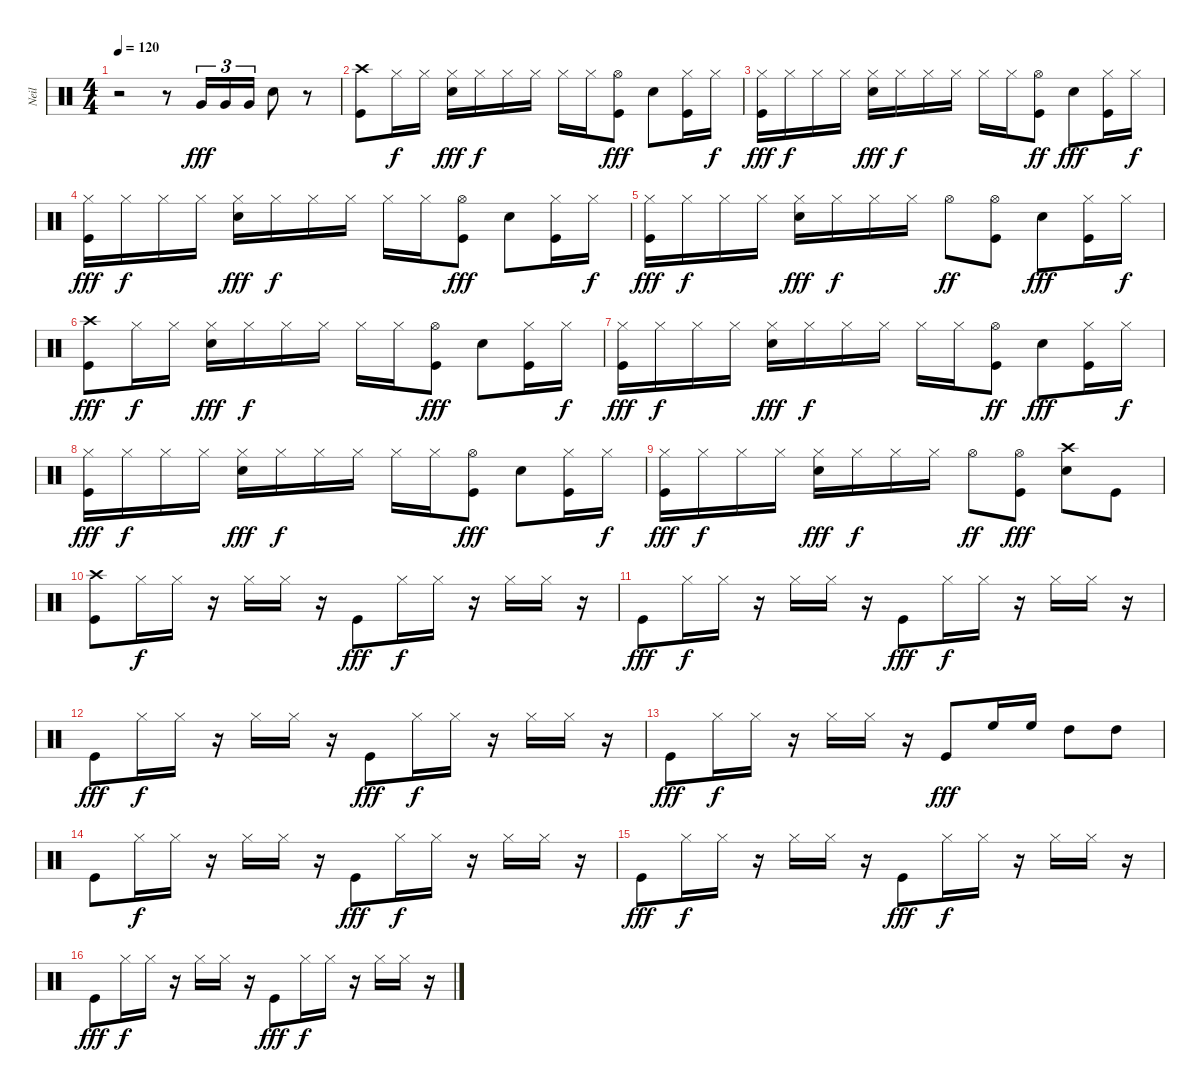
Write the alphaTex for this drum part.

\track ("Neil" "Neil") {instrument percussion}
\staff {score}
\articulation defaults
\ts (4 4)
\tempo 120
\clef neutral
\ks c
r.2{dy fff} r.8 "Very Low Tom (hit)".16{tu (3 2)} "Very Low Tom (hit)".16{tu (3 2)} "Very Low Tom (hit)".16{tu (3 2)} "Snare (hit) 2".8 r.8 |
("Crash high (hit)" "Kick (hit)").8 "Hi-Hat (closed)".16{dy f} "Hi-Hat (closed)".16 ("Snare (hit) 2" "Hi-Hat (closed)").16{dy fff} "Hi-Hat (closed)".16{dy f} "Hi-Hat (closed)".16 "Hi-Hat (closed)".16 "Hi-Hat (closed)".16 "Hi-Hat (closed)".16 ("Hi-Hat (open)" "Kick (hit)").8{dy fff} "Snare (hit) 2".8 ("Hi-Hat (closed)" "Kick (hit)").16 "Hi-Hat (closed)".16{dy f} |
("Hi-Hat (closed)" "Kick (hit)").16{dy fff} "Hi-Hat (closed)".16{dy f} "Hi-Hat (closed)".16 "Hi-Hat (closed)".16 ("Snare (hit) 2" "Hi-Hat (closed)").16{dy fff} "Hi-Hat (closed)".16{dy f} "Hi-Hat (closed)".16 "Hi-Hat (closed)".16 "Hi-Hat (closed)".16 "Hi-Hat (closed)".16 ("Kick (hit)" "Hi-Hat (open)").8{dy ff} "Snare (hit) 2".8{dy fff} ("Kick (hit)" "Hi-Hat (closed)").16 "Hi-Hat (closed)".16{dy f} |
("Kick (hit)" "Hi-Hat (closed)").16{dy fff} "Hi-Hat (closed)".16{dy f} "Hi-Hat (closed)".16 "Hi-Hat (closed)".16 ("Hi-Hat (closed)" "Snare (hit) 2").16{dy fff} "Hi-Hat (closed)".16{dy f} "Hi-Hat (closed)".16 "Hi-Hat (closed)".16 "Hi-Hat (closed)".16 "Hi-Hat (closed)".16 ("Hi-Hat (open)" "Kick (hit)").8{dy fff} "Snare (hit) 2".8 ("Hi-Hat (closed)" "Kick (hit)").16 "Hi-Hat (closed)".16{dy f} |
("Kick (hit)" "Hi-Hat (closed)").16{dy fff} "Hi-Hat (closed)".16{dy f} "Hi-Hat (closed)".16 "Hi-Hat (closed)".16 ("Snare (hit) 2" "Hi-Hat (closed)").16{dy fff} "Hi-Hat (closed)".16{dy f} "Hi-Hat (closed)".16 "Hi-Hat (closed)".16 "Hi-Hat (open)".8{dy ff} ("Kick (hit)" "Hi-Hat (open)").8 "Snare (hit) 2".8{dy fff} ("Hi-Hat (closed)" "Kick (hit)").16 "Hi-Hat (closed)".16{dy f} |
("Crash high (hit)" "Kick (hit)").8{dy fff} "Hi-Hat (closed)".16{dy f} "Hi-Hat (closed)".16 ("Snare (hit) 2" "Hi-Hat (closed)").16{dy fff} "Hi-Hat (closed)".16{dy f} "Hi-Hat (closed)".16 "Hi-Hat (closed)".16 "Hi-Hat (closed)".16 "Hi-Hat (closed)".16 ("Hi-Hat (open)" "Kick (hit)").8{dy fff} "Snare (hit) 2".8 ("Hi-Hat (closed)" "Kick (hit)").16 "Hi-Hat (closed)".16{dy f} |
("Kick (hit)" "Hi-Hat (closed)").16{dy fff} "Hi-Hat (closed)".16{dy f} "Hi-Hat (closed)".16 "Hi-Hat (closed)".16 ("Snare (hit) 2" "Hi-Hat (closed)").16{dy fff} "Hi-Hat (closed)".16{dy f} "Hi-Hat (closed)".16 "Hi-Hat (closed)".16 "Hi-Hat (closed)".16 "Hi-Hat (closed)".16 ("Kick (hit)" "Hi-Hat (open)").8{dy ff} "Snare (hit) 2".8{dy fff} ("Hi-Hat (closed)" "Kick (hit)").16 "Hi-Hat (closed)".16{dy f} |
("Kick (hit)" "Hi-Hat (closed)").16{dy fff} "Hi-Hat (closed)".16{dy f} "Hi-Hat (closed)".16 "Hi-Hat (closed)".16 ("Snare (hit) 2" "Hi-Hat (closed)").16{dy fff} "Hi-Hat (closed)".16{dy f} "Hi-Hat (closed)".16 "Hi-Hat (closed)".16 "Hi-Hat (closed)".16 "Hi-Hat (closed)".16 ("Hi-Hat (open)" "Kick (hit)").8{dy fff} "Snare (hit) 2".8 ("Hi-Hat (closed)" "Kick (hit)").16 "Hi-Hat (closed)".16{dy f} |
("Kick (hit)" "Hi-Hat (closed)").16{dy fff} "Hi-Hat (closed)".16{dy f} "Hi-Hat (closed)".16 "Hi-Hat (closed)".16 ("Snare (hit) 2" "Hi-Hat (closed)").16{dy fff} "Hi-Hat (closed)".16{dy f} "Hi-Hat (closed)".16 "Hi-Hat (closed)".16 "Hi-Hat (open)".8{dy ff} ("Hi-Hat (open)" "Kick (hit)").8{dy fff} ("Snare (hit) 2" "Crash high (hit)").8 "Kick (hit)".8 |
("Kick (hit)" "Crash high (hit)").8 "Hi-Hat (closed)".16{dy f} "Hi-Hat (closed)".16 r.16 "Hi-Hat (closed)".16 "Hi-Hat (closed)".16 r.16 "Kick (hit)".8{dy fff} "Hi-Hat (closed)".16{dy f} "Hi-Hat (closed)".16 r.16 "Hi-Hat (closed)".16 "Hi-Hat (closed)".16 r.16 |
"Kick (hit)".8{dy fff} "Hi-Hat (closed)".16{dy f} "Hi-Hat (closed)".16 r.16 "Hi-Hat (closed)".16 "Hi-Hat (closed)".16 r.16 "Kick (hit)".8{dy fff} "Hi-Hat (closed)".16{dy f} "Hi-Hat (closed)".16 r.16 "Hi-Hat (closed)".16 "Hi-Hat (closed)".16 r.16 |
"Kick (hit)".8{dy fff} "Hi-Hat (closed)".16{dy f} "Hi-Hat (closed)".16 r.16 "Hi-Hat (closed)".16 "Hi-Hat (closed)".16 r.16 "Kick (hit)".8{dy fff} "Hi-Hat (closed)".16{dy f} "Hi-Hat (closed)".16 r.16 "Hi-Hat (closed)".16 "Hi-Hat (closed)".16 r.16 |
"Kick (hit)".8{dy fff} "Hi-Hat (closed)".16{dy f} "Hi-Hat (closed)".16 r.16 "Hi-Hat (closed)".16 "Hi-Hat (closed)".16 r.16 "Kick (hit)".8{dy fff} "High Floor Tom (hit)".16 "High Floor Tom (hit)".16 "High Tom (hit)".8 "High Tom (hit)".8 |
"Kick (hit)".8 "Hi-Hat (closed)".16{dy f} "Hi-Hat (closed)".16 r.16 "Hi-Hat (closed)".16 "Hi-Hat (closed)".16 r.16 "Kick (hit)".8{dy fff} "Hi-Hat (closed)".16{dy f} "Hi-Hat (closed)".16 r.16 "Hi-Hat (closed)".16 "Hi-Hat (closed)".16 r.16 |
"Kick (hit)".8{dy fff} "Hi-Hat (closed)".16{dy f} "Hi-Hat (closed)".16 r.16 "Hi-Hat (closed)".16 "Hi-Hat (closed)".16 r.16 "Kick (hit)".8{dy fff} "Hi-Hat (closed)".16{dy f} "Hi-Hat (closed)".16 r.16 "Hi-Hat (closed)".16 "Hi-Hat (closed)".16 r.16 |
"Kick (hit)".8{dy fff} "Hi-Hat (closed)".16{dy f} "Hi-Hat (closed)".16 r.16 "Hi-Hat (closed)".16 "Hi-Hat (closed)".16 r.16 "Kick (hit)".8{dy fff} "Hi-Hat (closed)".16{dy f} "Hi-Hat (closed)".16 r.16 "Hi-Hat (closed)".16 "Hi-Hat (closed)".16 r.16
